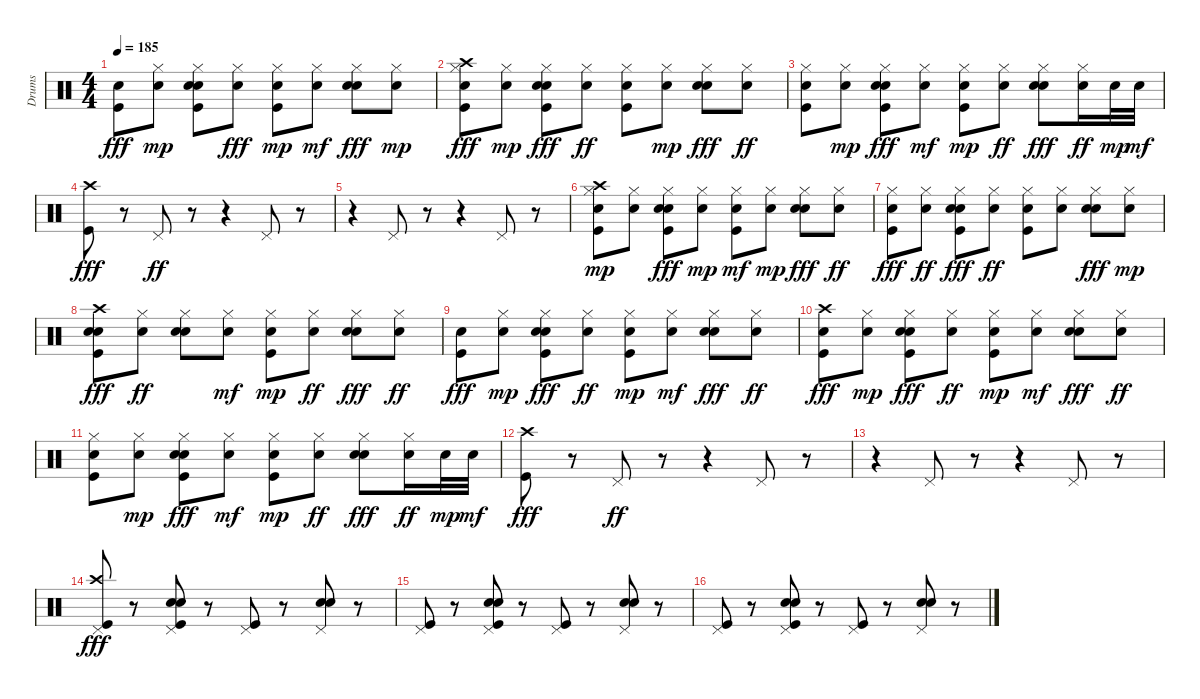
\track ("Drums" "Drums") {instrument percussion}
\staff {score}
\articulation defaults
\ts (4 4)
\tempo 185
\clef neutral
\ks c
("Kick (hit)" "Snare (hit) 2").8{dy fff} ("Hi-Hat (closed)" "Snare (hit) 2").8{dy mp} ("Snare (hit) 2" "Hand Clap (hit)" "Hi-Hat (closed)" "Kick (hit)").8 ("Hi-Hat (closed)" "Snare (hit) 2").8{dy fff} ("Hi-Hat (closed)" "Kick (hit)" "Snare (hit) 2").8{dy mp} ("Hi-Hat (closed)" "Snare (hit) 2").8{dy mf} ("Hi-Hat (closed)" "Hand Clap (hit)" "Snare (hit) 2").8{dy fff} ("Hi-Hat (closed)" "Snare (hit) 2").8{dy mp} |
("Snare (hit) 2" "Hi-Hat (closed)" "Kick (hit)" "Crash high (hit)").8{dy fff} ("Hi-Hat (closed)" "Snare (hit) 2").8{dy mp} ("Kick (hit)" "Hand Clap (hit)" "Hi-Hat (closed)" "Snare (hit) 2").8{dy fff} ("Snare (hit) 2" "Hi-Hat (closed)").8{dy ff} ("Snare (hit) 2" "Kick (hit)" "Hi-Hat (closed)").8 ("Hi-Hat (closed)" "Snare (hit) 2").8{dy mp} ("Hi-Hat (closed)" "Hand Clap (hit)" "Snare (hit) 2").8{dy fff} ("Snare (hit) 2" "Hi-Hat (closed)").8{dy ff} |
("Kick (hit)" "Snare (hit) 2" "Hi-Hat (closed)").8 ("Hi-Hat (closed)" "Snare (hit) 2").8{dy mp} ("Kick (hit)" "Hand Clap (hit)" "Hi-Hat (closed)" "Snare (hit) 2").8{dy fff} ("Hi-Hat (closed)" "Snare (hit) 2").8{dy mf} ("Kick (hit)" "Hi-Hat (closed)" "Snare (hit) 2").8{dy mp} ("Snare (hit) 2" "Hi-Hat (closed)").8{dy ff} ("Hand Clap (hit)" "Snare (hit) 2" "Hi-Hat (closed)").8{dy fff} ("Snare (hit) 2" "Hi-Hat (closed)").16{dy ff} "Snare (hit) 2".32{dy mp} "Snare (hit) 2".32{dy mf} |
("Kick (hit)" "Crash high (hit)").8{dy fff} r.8 "Pedal Hi-Hat (hit)".8{dy ff} r.8 r.4 "Pedal Hi-Hat (hit)".8 r.8 |
r.4 "Pedal Hi-Hat (hit)".8 r.8 r.4 "Pedal Hi-Hat (hit)".8 r.8 |
("Crash high (hit)" "Kick (hit)" "Hi-Hat (closed)" "Snare (hit) 2").8{dy mp} ("Hi-Hat (closed)" "Snare (hit) 2").8 ("Hi-Hat (closed)" "Kick (hit)" "Hand Clap (hit)" "Snare (hit) 2").8{dy fff} ("Hi-Hat (closed)" "Snare (hit) 2").8{dy mp} ("Hi-Hat (closed)" "Kick (hit)" "Snare (hit) 2").8{dy mf} ("Hi-Hat (closed)" "Snare (hit) 2").8{dy mp} ("Hand Clap (hit)" "Hi-Hat (closed)" "Snare (hit) 2").8{dy fff} ("Snare (hit) 2" "Hi-Hat (closed)").8{dy ff} |
("Snare (hit) 2" "Hi-Hat (closed)" "Kick (hit)").8{dy fff} ("Snare (hit) 2" "Hi-Hat (closed)").8{dy ff} ("Hand Clap (hit)" "Hi-Hat (closed)" "Kick (hit)" "Snare (hit) 2").8{dy fff} ("Snare (hit) 2" "Hi-Hat (closed)").8{dy ff} ("Kick (hit)" "Snare (hit) 2" "Hi-Hat (closed)").8 ("Snare (hit) 2" "Hi-Hat (closed)").8 ("Snare (hit) 2" "Hi-Hat (closed)" "Hand Clap (hit)").8{dy fff} ("Hi-Hat (closed)" "Snare (hit) 2").8{dy mp} |
("Crash high (hit)" "Hand Clap (hit)" "Snare (hit) 2" "Kick (hit)").8{dy fff} ("Snare (hit) 2" "Hi-Hat (closed)").8{dy ff} ("Hand Clap (hit)" "Snare (hit) 2" "Hi-Hat (closed)").8 ("Hi-Hat (closed)" "Snare (hit) 2").8{dy mf} ("Kick (hit)" "Hi-Hat (closed)" "Snare (hit) 2").8{dy mp} ("Snare (hit) 2" "Hi-Hat (closed)").8{dy ff} ("Snare (hit) 2" "Hi-Hat (closed)" "Hand Clap (hit)").8{dy fff} ("Snare (hit) 2" "Hi-Hat (closed)").8{dy ff} |
("Snare (hit) 2" "Kick (hit)").8{dy fff} ("Hi-Hat (closed)" "Snare (hit) 2").8{dy mp} ("Snare (hit) 2" "Kick (hit)" "Hand Clap (hit)" "Hi-Hat (closed)").8{dy fff} ("Snare (hit) 2" "Hi-Hat (closed)").8{dy ff} ("Hi-Hat (closed)" "Kick (hit)" "Snare (hit) 2").8{dy mp} ("Hi-Hat (closed)" "Snare (hit) 2").8{dy mf} ("Hand Clap (hit)" "Snare (hit) 2" "Hi-Hat (closed)").8{dy fff} ("Snare (hit) 2" "Hi-Hat (closed)").8{dy ff} |
("Snare (hit) 2" "Kick (hit)" "Crash high (hit)").8{dy fff} ("Hi-Hat (closed)" "Snare (hit) 2").8{dy mp} ("Snare (hit) 2" "Kick (hit)" "Hand Clap (hit)" "Hi-Hat (closed)").8{dy fff} ("Snare (hit) 2" "Hi-Hat (closed)").8{dy ff} ("Hi-Hat (closed)" "Kick (hit)" "Snare (hit) 2").8{dy mp} ("Hi-Hat (closed)" "Snare (hit) 2").8{dy mf} ("Hand Clap (hit)" "Snare (hit) 2" "Hi-Hat (closed)").8{dy fff} ("Snare (hit) 2" "Hi-Hat (closed)").8{dy ff} |
("Kick (hit)" "Snare (hit) 2" "Hi-Hat (closed)").8 ("Hi-Hat (closed)" "Snare (hit) 2").8{dy mp} ("Kick (hit)" "Hand Clap (hit)" "Hi-Hat (closed)" "Snare (hit) 2").8{dy fff} ("Hi-Hat (closed)" "Snare (hit) 2").8{dy mf} ("Kick (hit)" "Hi-Hat (closed)" "Snare (hit) 2").8{dy mp} ("Snare (hit) 2" "Hi-Hat (closed)").8{dy ff} ("Hand Clap (hit)" "Snare (hit) 2" "Hi-Hat (closed)").8{dy fff} ("Snare (hit) 2" "Hi-Hat (closed)").16{dy ff} "Snare (hit) 2".32{dy mp} "Snare (hit) 2".32{dy mf} |
("Kick (hit)" "Crash high (hit)").8{dy fff} r.8 "Pedal Hi-Hat (hit)".8{dy ff} r.8 r.4 "Pedal Hi-Hat (hit)".8 r.8 |
r.4 "Pedal Hi-Hat (hit)".8 r.8 r.4 "Pedal Hi-Hat (hit)".8 r.8 |
("Pedal Hi-Hat (hit)" "Crash high (hit)" "Kick (hit)").8{dy fff} r.8 ("Pedal Hi-Hat (hit)" "Kick (hit)" "Hand Clap (hit)" "Snare (hit) 2").8 r.8 ("Pedal Hi-Hat (hit)" "Kick (hit)").8 r.8 ("Snare (hit) 2" "Pedal Hi-Hat (hit)" "Hand Clap (hit)").8 r.8 |
("Pedal Hi-Hat (hit)" "Kick (hit)").8 r.8 ("Pedal Hi-Hat (hit)" "Kick (hit)" "Hand Clap (hit)" "Snare (hit) 2").8 r.8 ("Pedal Hi-Hat (hit)" "Kick (hit)").8 r.8 ("Snare (hit) 2" "Pedal Hi-Hat (hit)" "Hand Clap (hit)").8 r.8 |
("Pedal Hi-Hat (hit)" "Kick (hit)").8 r.8 ("Pedal Hi-Hat (hit)" "Kick (hit)" "Hand Clap (hit)" "Snare (hit) 2").8 r.8 ("Pedal Hi-Hat (hit)" "Kick (hit)").8 r.8 ("Snare (hit) 2" "Pedal Hi-Hat (hit)" "Hand Clap (hit)").8 r.8
